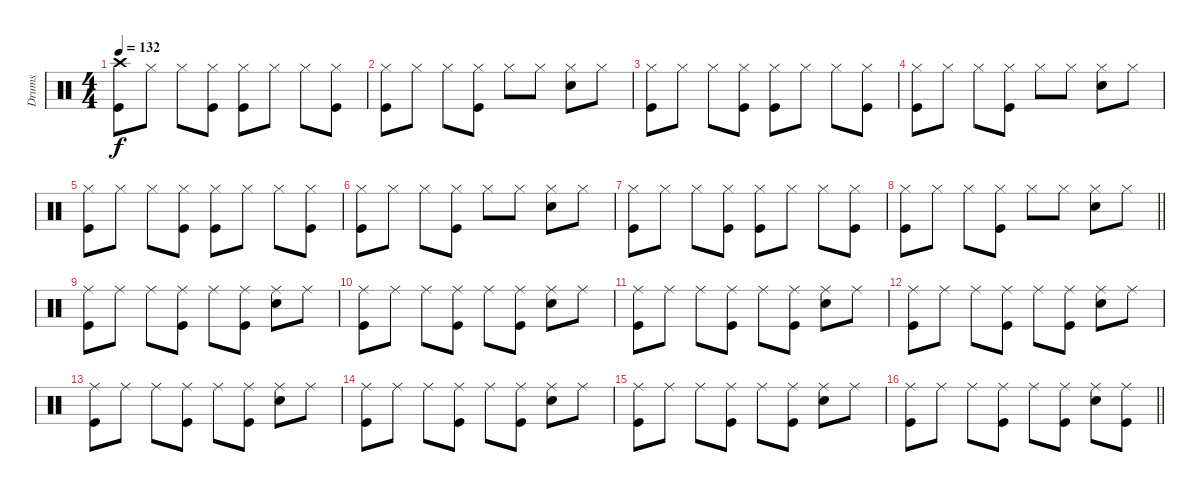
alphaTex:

\track ("Drums" "Drums") {instrument percussion}
\staff {score}
\articulation defaults
\ts (4 4)
\tempo 132
\clef neutral
\ks c
("Crash high (hit)" "Kick (hit)").8{dy f} "Hi-Hat (closed)".8 "Hi-Hat (closed)".8 ("Hi-Hat (closed)" "Kick (hit)").8 ("Hi-Hat (closed)" "Kick (hit)").8 "Hi-Hat (closed)".8 "Hi-Hat (closed)".8 ("Hi-Hat (closed)" "Kick (hit)").8 |
("Hi-Hat (closed)" "Kick (hit)").8 "Hi-Hat (closed)".8 "Hi-Hat (closed)".8 ("Hi-Hat (closed)" "Kick (hit)").8 "Hi-Hat (closed)".8 "Hi-Hat (closed)".8 ("Hi-Hat (closed)" "Electric Snare (hit)").8 "Hi-Hat (closed)".8 |
("Hi-Hat (closed)" "Kick (hit)").8 "Hi-Hat (closed)".8 "Hi-Hat (closed)".8 ("Hi-Hat (closed)" "Kick (hit)").8 ("Hi-Hat (closed)" "Kick (hit)").8 "Hi-Hat (closed)".8 "Hi-Hat (closed)".8 ("Hi-Hat (closed)" "Kick (hit)").8 |
("Hi-Hat (closed)" "Kick (hit)").8 "Hi-Hat (closed)".8 "Hi-Hat (closed)".8 ("Hi-Hat (closed)" "Kick (hit)").8 "Hi-Hat (closed)".8 "Hi-Hat (closed)".8 ("Hi-Hat (closed)" "Electric Snare (hit)").8 "Hi-Hat (closed)".8 |
("Hi-Hat (closed)" "Kick (hit)").8 "Hi-Hat (closed)".8 "Hi-Hat (closed)".8 ("Hi-Hat (closed)" "Kick (hit)").8 ("Hi-Hat (closed)" "Kick (hit)").8 "Hi-Hat (closed)".8 "Hi-Hat (closed)".8 ("Hi-Hat (closed)" "Kick (hit)").8 |
("Hi-Hat (closed)" "Kick (hit)").8 "Hi-Hat (closed)".8 "Hi-Hat (closed)".8 ("Hi-Hat (closed)" "Kick (hit)").8 "Hi-Hat (closed)".8 "Hi-Hat (closed)".8 ("Hi-Hat (closed)" "Electric Snare (hit)").8 "Hi-Hat (closed)".8 |
("Hi-Hat (closed)" "Kick (hit)").8 "Hi-Hat (closed)".8 "Hi-Hat (closed)".8 ("Hi-Hat (closed)" "Kick (hit)").8 ("Hi-Hat (closed)" "Kick (hit)").8 "Hi-Hat (closed)".8 "Hi-Hat (closed)".8 ("Hi-Hat (closed)" "Kick (hit)").8 |
\barLineRight lightlight
("Hi-Hat (closed)" "Kick (hit)").8 "Hi-Hat (closed)".8 "Hi-Hat (closed)".8 ("Hi-Hat (closed)" "Kick (hit)").8 "Hi-Hat (closed)".8 "Hi-Hat (closed)".8 ("Hi-Hat (closed)" "Electric Snare (hit)").8 "Hi-Hat (closed)".8 |
("Ride (middle)" "Kick (hit)").8 "Ride (middle)".8 "Ride (middle)".8 ("Ride (middle)" "Kick (hit)").8 "Ride (middle)".8 ("Ride (middle)" "Kick (hit)").8 ("Ride (middle)" "Electric Snare (hit)").8 "Ride (middle)".8 |
("Ride (middle)" "Kick (hit)").8 "Ride (middle)".8 "Ride (middle)".8 ("Ride (middle)" "Kick (hit)").8 "Ride (middle)".8 ("Ride (middle)" "Kick (hit)").8 ("Ride (middle)" "Electric Snare (hit)").8 "Ride (middle)".8 |
("Ride (middle)" "Kick (hit)").8 "Ride (middle)".8 "Ride (middle)".8 ("Ride (middle)" "Kick (hit)").8 "Ride (middle)".8 ("Ride (middle)" "Kick (hit)").8 ("Ride (middle)" "Electric Snare (hit)").8 "Ride (middle)".8 |
("Ride (middle)" "Kick (hit)").8 "Ride (middle)".8 "Ride (middle)".8 ("Ride (middle)" "Kick (hit)").8 "Ride (middle)".8 ("Ride (middle)" "Kick (hit)").8 ("Ride (middle)" "Electric Snare (hit)").8 "Ride (middle)".8 |
("Ride (middle)" "Kick (hit)").8 "Ride (middle)".8 "Ride (middle)".8 ("Ride (middle)" "Kick (hit)").8 "Ride (middle)".8 ("Ride (middle)" "Kick (hit)").8 ("Ride (middle)" "Electric Snare (hit)").8 "Ride (middle)".8 |
("Ride (middle)" "Kick (hit)").8 "Ride (middle)".8 "Ride (middle)".8 ("Ride (middle)" "Kick (hit)").8 "Ride (middle)".8 ("Ride (middle)" "Kick (hit)").8 ("Ride (middle)" "Electric Snare (hit)").8 "Ride (middle)".8 |
("Ride (middle)" "Kick (hit)").8 "Ride (middle)".8 "Ride (middle)".8 ("Ride (middle)" "Kick (hit)").8 "Ride (middle)".8 ("Ride (middle)" "Kick (hit)").8 ("Ride (middle)" "Electric Snare (hit)").8 "Ride (middle)".8 |
\barLineRight lightlight
("Ride (middle)" "Kick (hit)").8 "Ride (middle)".8 "Ride (middle)".8 ("Ride (middle)" "Kick (hit)").8 "Ride (middle)".8 ("Ride (middle)" "Kick (hit)").8 ("Ride (middle)" "Electric Snare (hit)").8 ("Ride (middle)" "Kick (hit)").8
